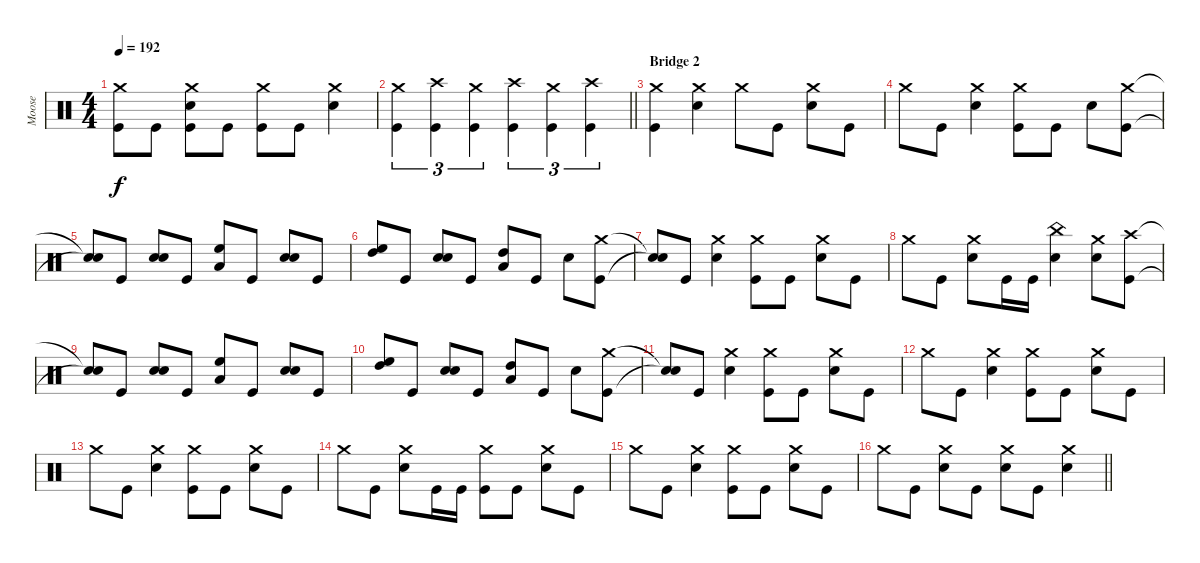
\track ("Moose" "Moose") {instrument percussion}
\staff {score}
\articulation defaults
\ts (4 4)
\tempo 192
\clef neutral
\ks c
("Crash medium (hit)" "Kick (hit)").8{dy f} "Kick (hit)".8 ("Crash medium (hit)" "Electric Snare (hit)" "Kick (hit)").8 "Kick (hit)".8 ("Crash medium (hit)" "Kick (hit)").8 "Kick (hit)".8 ("Crash medium (hit)" "Electric Snare (hit)").4 |
\barLineRight lightlight
("Crash medium (hit)" "Kick (hit)").4{tu (3 2)} ("Crash high (hit)" "Kick (hit)").4{tu (3 2)} ("Crash medium (hit)" "Kick (hit)").4{tu (3 2)} ("Crash high (hit)" "Kick (hit)").4{tu (3 2)} ("Crash medium (hit)" "Kick (hit)").4{tu (3 2)} ("Crash high (hit)" "Kick (hit)").4{tu (3 2)} |
\section ("" "Bridge 2")
("Crash medium (hit)" "Kick (hit)").4 ("Crash medium (hit)" "Electric Snare (hit)").4 "Crash medium (hit)".8 "Kick (hit)".8 ("Crash medium (hit)" "Electric Snare (hit)").8 "Kick (hit)".8 |
"Crash medium (hit)".8 "Kick (hit)".8 ("Crash medium (hit)" "Electric Snare (hit)").4 ("Crash medium (hit)" "Kick (hit)").8 "Kick (hit)".8 "Electric Snare (hit)".8 ("Crash medium (hit)" "Kick (hit)").8 |
("Snare (hit)"{t} "Snare (hit)"{t}).8 "Kick (hit)".8 ("Electric Snare (hit)" "Electric Snare (hit)").8{bd 120} "Kick (hit)".8 ("High Floor Tom (hit)" "Low Tom (hit)").8{bd 120} "Kick (hit)".8 ("Electric Snare (hit)" "Electric Snare (hit)").8{bd 120} "Kick (hit)".8 |
("High Floor Tom (hit)" "High Tom (hit)").8{bd 120} "Kick (hit)".8 ("Electric Snare (hit)" "Electric Snare (hit)").8{bd 120} "Kick (hit)".8 ("High Tom (hit)" "Low Tom (hit)").8{bd 120} "Kick (hit)".8 "Electric Snare (hit)".8 ("Crash medium (hit)" "Kick (hit)").8 |
("Snare (hit)"{t} "Snare (hit)"{t}).8 "Kick (hit)".8 ("Crash medium (hit)" "Electric Snare (hit)").4 ("Crash medium (hit)" "Kick (hit)").8 "Kick (hit)".8 ("Crash medium (hit)" "Electric Snare (hit)").8 "Kick (hit)".8 |
"Crash medium (hit)".8 "Kick (hit)".8 ("Crash medium (hit)" "Electric Snare (hit)").8 "Kick (hit)".16 "Kick (hit)".16 ("China (hit)" "Electric Snare (hit)").4 ("Crash medium (hit)" "Electric Snare (hit)").8 ("Crash high (hit)" "Kick (hit)").8 |
("Snare (hit)"{t} "Snare (hit)"{t}).8 "Kick (hit)".8 ("Electric Snare (hit)" "Electric Snare (hit)").8{bd 120} "Kick (hit)".8 ("High Floor Tom (hit)" "Low Tom (hit)").8{bd 120} "Kick (hit)".8 ("Electric Snare (hit)" "Electric Snare (hit)").8{bd 120} "Kick (hit)".8 |
("High Floor Tom (hit)" "High Tom (hit)").8{bd 120} "Kick (hit)".8 ("Electric Snare (hit)" "Electric Snare (hit)").8{bd 120} "Kick (hit)".8 ("High Tom (hit)" "Low Tom (hit)").8{bd 120} "Kick (hit)".8 "Electric Snare (hit)".8 ("Crash medium (hit)" "Kick (hit)").8 |
("Snare (hit)"{t} "Snare (hit)"{t}).8 "Kick (hit)".8 ("Crash medium (hit)" "Electric Snare (hit)").4 ("Crash medium (hit)" "Kick (hit)").8 "Kick (hit)".8 ("Crash medium (hit)" "Electric Snare (hit)").8 "Kick (hit)".8 |
"Crash medium (hit)".8 "Kick (hit)".8 ("Crash medium (hit)" "Electric Snare (hit)").4 ("Crash medium (hit)" "Kick (hit)").8 "Kick (hit)".8 ("Crash medium (hit)" "Electric Snare (hit)").8 "Kick (hit)".8 |
"Crash medium (hit)".8 "Kick (hit)".8 ("Crash medium (hit)" "Electric Snare (hit)").4 ("Crash medium (hit)" "Kick (hit)").8 "Kick (hit)".8 ("Crash medium (hit)" "Electric Snare (hit)").8 "Kick (hit)".8 |
"Crash medium (hit)".8 "Kick (hit)".8 ("Crash medium (hit)" "Electric Snare (hit)").8 "Kick (hit)".16 "Kick (hit)".16 ("Crash medium (hit)" "Kick (hit)").8 "Kick (hit)".8 ("Crash medium (hit)" "Electric Snare (hit)").8 "Kick (hit)".8 |
"Crash medium (hit)".8 "Kick (hit)".8 ("Crash medium (hit)" "Electric Snare (hit)").4 ("Crash medium (hit)" "Kick (hit)").8 "Kick (hit)".8 ("Crash medium (hit)" "Electric Snare (hit)").8 "Kick (hit)".8 |
\barLineRight lightlight "Crash medium (hit)".8 "Kick (hit)".8
("Crash medium (hit)" "Electric Snare (hit)").8 "Kick (hit)".8 ("Crash medium (hit)" "Electric Snare (hit)").8 "Kick (hit)".8 ("Crash medium (hit)" "Electric Snare (hit)").4
